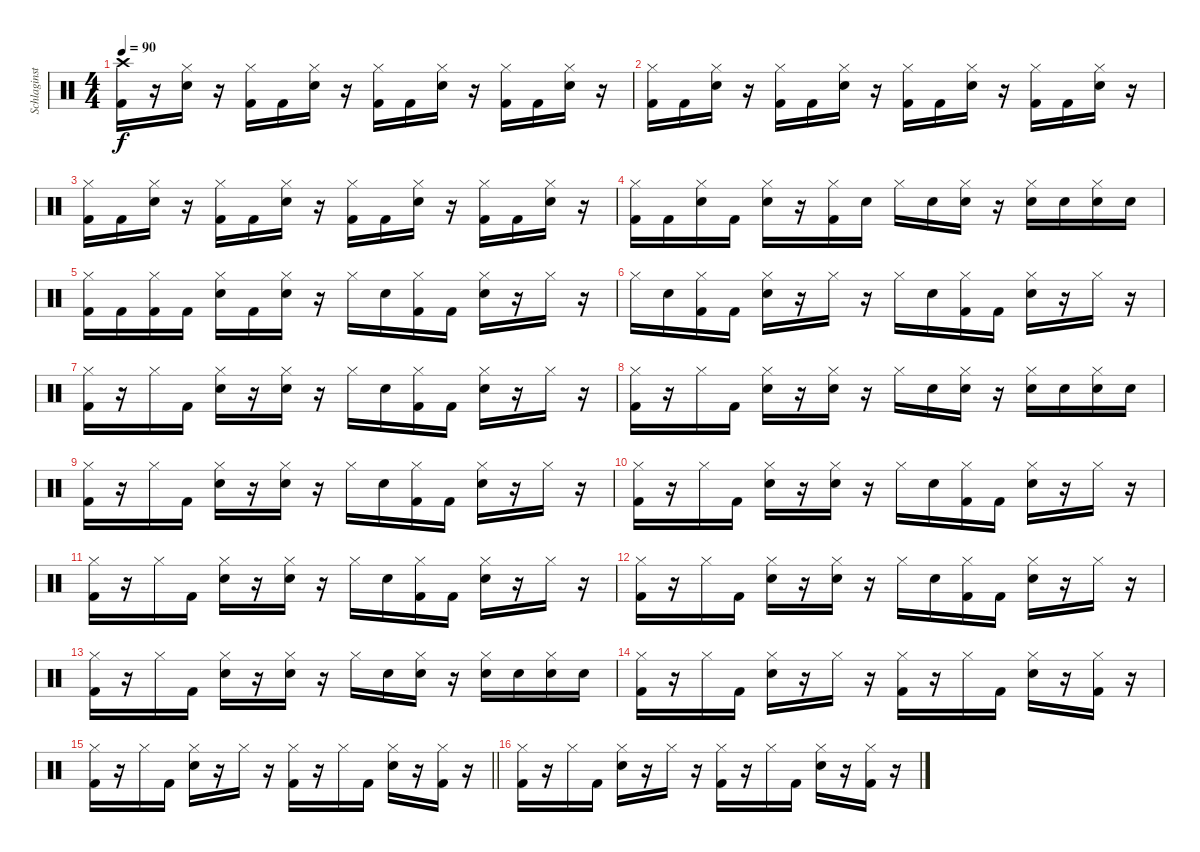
\track ("Schlaginstrumente - Auswahl" "Schlaginst") {instrument percussion}
\staff {score}
\articulation defaults
\ts (4 4)
\tempo 90
\clef neutral
\ks c
("Crash high (hit)" "Kick (hit) 2").16{dy f} r.16 ("Hi-Hat (closed)" "Snare (hit) 2").16 r.16 ("Hi-Hat (closed)" "Kick (hit) 2").16 "Kick (hit) 2".16 ("Hi-Hat (closed)" "Snare (hit) 2").16 r.16 ("Hi-Hat (closed)" "Kick (hit) 2").16 "Kick (hit) 2".16 ("Hi-Hat (closed)" "Snare (hit) 2").16 r.16 ("Hi-Hat (closed)" "Kick (hit) 2").16 "Kick (hit) 2".16 ("Hi-Hat (closed)" "Snare (hit) 2").16 r.16 |
("Hi-Hat (closed)" "Kick (hit) 2").16 "Kick (hit) 2".16 ("Hi-Hat (closed)" "Snare (hit) 2").16 r.16 ("Hi-Hat (closed)" "Kick (hit) 2").16 "Kick (hit) 2".16 ("Hi-Hat (closed)" "Snare (hit) 2").16 r.16 ("Hi-Hat (closed)" "Kick (hit) 2").16 "Kick (hit) 2".16 ("Hi-Hat (closed)" "Snare (hit) 2").16 r.16 ("Hi-Hat (closed)" "Kick (hit) 2").16 "Kick (hit) 2".16 ("Hi-Hat (closed)" "Snare (hit) 2").16 r.16 |
("Hi-Hat (closed)" "Kick (hit) 2").16 "Kick (hit) 2".16 ("Hi-Hat (closed)" "Snare (hit) 2").16 r.16 ("Hi-Hat (closed)" "Kick (hit) 2").16 "Kick (hit) 2".16 ("Hi-Hat (closed)" "Snare (hit) 2").16 r.16 ("Hi-Hat (closed)" "Kick (hit) 2").16 "Kick (hit) 2".16 ("Hi-Hat (closed)" "Snare (hit) 2").16 r.16 ("Hi-Hat (closed)" "Kick (hit) 2").16 "Kick (hit) 2".16 ("Hi-Hat (closed)" "Snare (hit) 2").16 r.16 |
("Hi-Hat (closed)" "Kick (hit) 2").16 "Kick (hit) 2".16 ("Hi-Hat (closed)" "Snare (hit) 2").16 "Kick (hit) 2".16 ("Hi-Hat (closed)" "Snare (hit) 2").16 r.16 ("Hi-Hat (closed)" "Kick (hit) 2").16 "Snare (hit) 2".16 "Hi-Hat (closed)".16 "Snare (hit) 2".16 ("Hi-Hat (closed)" "Snare (hit) 2").16 r.16 ("Hi-Hat (closed)" "Snare (hit) 2").16 "Snare (hit) 2".16 ("Hi-Hat (closed)" "Snare (hit) 2").16 "Snare (hit) 2".16 |
("Hi-Hat (closed)" "Kick (hit) 2").16 "Kick (hit) 2".16 ("Hi-Hat (closed)" "Kick (hit) 2").16 "Kick (hit) 2".16 ("Hi-Hat (closed)" "Snare (hit) 2").16 "Kick (hit) 2".16 ("Hi-Hat (closed)" "Snare (hit) 2").16 r.16 "Hi-Hat (closed)".16 "Snare (hit) 2".16 ("Hi-Hat (closed)" "Kick (hit) 2").16 "Kick (hit) 2".16 ("Hi-Hat (closed)" "Snare (hit) 2").16 r.16 "Hi-Hat (closed)".16 r.16 |
"Hi-Hat (closed)".16 "Snare (hit) 2".16 ("Hi-Hat (closed)" "Kick (hit) 2").16 "Kick (hit) 2".16 ("Hi-Hat (closed)" "Snare (hit) 2").16 r.16 "Hi-Hat (closed)".16 r.16 "Hi-Hat (closed)".16 "Snare (hit) 2".16 ("Hi-Hat (closed)" "Kick (hit) 2").16 "Kick (hit) 2".16 ("Hi-Hat (closed)" "Snare (hit) 2").16 r.16 "Hi-Hat (closed)".16 r.16 |
("Hi-Hat (closed)" "Kick (hit) 2").16 r.16 "Hi-Hat (closed)".16 "Kick (hit) 2".16 ("Hi-Hat (closed)" "Snare (hit) 2").16 r.16 ("Hi-Hat (closed)" "Snare (hit) 2").16 r.16 "Hi-Hat (closed)".16 "Snare (hit) 2".16 ("Hi-Hat (closed)" "Kick (hit) 2").16 "Kick (hit) 2".16 ("Hi-Hat (closed)" "Snare (hit) 2").16 r.16 "Hi-Hat (closed)".16 r.16 |
("Hi-Hat (closed)" "Kick (hit) 2").16 r.16 "Hi-Hat (closed)".16 "Kick (hit) 2".16 ("Hi-Hat (closed)" "Snare (hit) 2").16 r.16 ("Hi-Hat (closed)" "Snare (hit) 2").16 r.16 "Hi-Hat (closed)".16 "Snare (hit) 2".16 ("Hi-Hat (closed)" "Snare (hit) 2").16 r.16 ("Hi-Hat (closed)" "Snare (hit) 2").16 "Snare (hit) 2".16 ("Hi-Hat (closed)" "Snare (hit) 2").16 "Snare (hit) 2".16 |
("Hi-Hat (closed)" "Kick (hit) 2").16 r.16 "Hi-Hat (closed)".16 "Kick (hit) 2".16 ("Hi-Hat (closed)" "Snare (hit) 2").16 r.16 ("Hi-Hat (closed)" "Snare (hit) 2").16 r.16 "Hi-Hat (closed)".16 "Snare (hit) 2".16 ("Hi-Hat (closed)" "Kick (hit) 2").16 "Kick (hit) 2".16 ("Hi-Hat (closed)" "Snare (hit) 2").16 r.16 "Hi-Hat (closed)".16 r.16 |
("Hi-Hat (closed)" "Kick (hit) 2").16 r.16 "Hi-Hat (closed)".16 "Kick (hit) 2".16 ("Hi-Hat (closed)" "Snare (hit) 2").16 r.16 ("Hi-Hat (closed)" "Snare (hit) 2").16 r.16 "Hi-Hat (closed)".16 "Snare (hit) 2".16 ("Hi-Hat (closed)" "Kick (hit) 2").16 "Kick (hit) 2".16 ("Hi-Hat (closed)" "Snare (hit) 2").16 r.16 "Hi-Hat (closed)".16 r.16 |
("Hi-Hat (closed)" "Kick (hit) 2").16 r.16 "Hi-Hat (closed)".16 "Kick (hit) 2".16 ("Hi-Hat (closed)" "Snare (hit) 2").16 r.16 ("Hi-Hat (closed)" "Snare (hit) 2").16 r.16 "Hi-Hat (closed)".16 "Snare (hit) 2".16 ("Hi-Hat (closed)" "Kick (hit) 2").16 "Kick (hit) 2".16 ("Hi-Hat (closed)" "Snare (hit) 2").16 r.16 "Hi-Hat (closed)".16 r.16 |
("Hi-Hat (closed)" "Kick (hit) 2").16 r.16 "Hi-Hat (closed)".16 "Kick (hit) 2".16 ("Hi-Hat (closed)" "Snare (hit) 2").16 r.16 ("Hi-Hat (closed)" "Snare (hit) 2").16 r.16 "Hi-Hat (closed)".16 "Snare (hit) 2".16 ("Hi-Hat (closed)" "Kick (hit) 2").16 "Kick (hit) 2".16 ("Hi-Hat (closed)" "Snare (hit) 2").16 r.16 "Hi-Hat (closed)".16 r.16 |
("Hi-Hat (closed)" "Kick (hit) 2").16 r.16 "Hi-Hat (closed)".16 "Kick (hit) 2".16 ("Hi-Hat (closed)" "Snare (hit) 2").16 r.16 ("Hi-Hat (closed)" "Snare (hit) 2").16 r.16 "Hi-Hat (closed)".16 "Snare (hit) 2".16 ("Hi-Hat (closed)" "Snare (hit) 2").16 r.16 ("Hi-Hat (closed)" "Snare (hit) 2").16 "Snare (hit) 2".16 ("Hi-Hat (closed)" "Snare (hit) 2").16 "Snare (hit) 2".16 |
("Hi-Hat (closed)" "Kick (hit) 2").16 r.16 "Hi-Hat (closed)".16 "Kick (hit) 2".16 ("Hi-Hat (closed)" "Snare (hit) 2").16 r.16 "Hi-Hat (closed)".16 r.16 ("Hi-Hat (closed)" "Kick (hit) 2").16 r.16 "Hi-Hat (closed)".16 "Kick (hit) 2".16 ("Hi-Hat (closed)" "Snare (hit) 2").16 r.16 ("Hi-Hat (closed)" "Kick (hit) 2").16 r.16 |
\barLineRight lightlight
("Hi-Hat (closed)" "Kick (hit) 2").16 r.16 "Hi-Hat (closed)".16 "Kick (hit) 2".16 ("Hi-Hat (closed)" "Snare (hit) 2").16 r.16 "Hi-Hat (closed)".16 r.16 ("Hi-Hat (closed)" "Kick (hit) 2").16 r.16 "Hi-Hat (closed)".16 "Kick (hit) 2".16 ("Hi-Hat (closed)" "Snare (hit) 2").16 r.16 ("Hi-Hat (closed)" "Kick (hit) 2").16 r.16 |
("Hi-Hat (closed)" "Kick (hit) 2").16 r.16 "Hi-Hat (closed)".16 "Kick (hit) 2".16 ("Hi-Hat (closed)" "Snare (hit) 2").16 r.16 "Hi-Hat (closed)".16 r.16 ("Hi-Hat (closed)" "Kick (hit) 2").16 r.16 "Hi-Hat (closed)".16 "Kick (hit) 2".16 ("Hi-Hat (closed)" "Snare (hit) 2").16 r.16 ("Hi-Hat (closed)" "Kick (hit) 2").16 r.16
